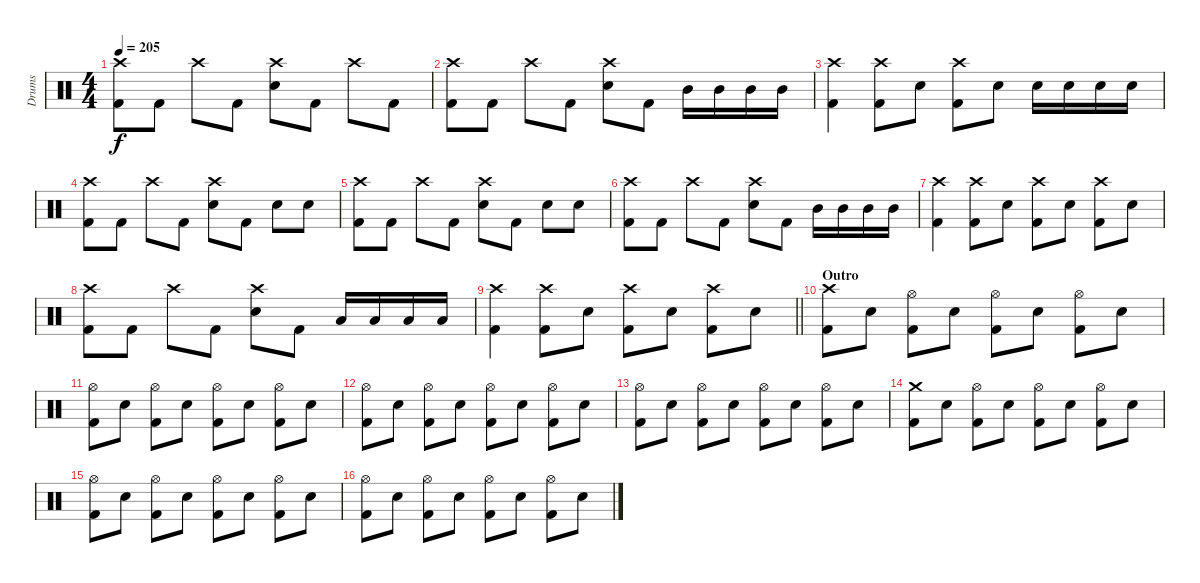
\track ("Drums" "Drums") {instrument percussion}
\staff {score}
\articulation defaults
\ts (4 4)
\tempo 205
\clef neutral
\ks c
("Crash high (hit)" "Kick (hit) 2").8{dy f} "Kick (hit) 2".8 "Crash high (hit)".8 "Kick (hit) 2".8 ("Crash high (hit)" "Electric Snare (hit)").8 "Kick (hit) 2".8 "Crash high (hit)".8 "Kick (hit) 2".8 |
("Crash high (hit)" "Kick (hit) 2").8 "Kick (hit) 2".8 "Crash high (hit)".8 "Kick (hit) 2".8 ("Crash high (hit)" "Electric Snare (hit)").8 "Kick (hit) 2".8 "Mid Tom (hit)".16 "Mid Tom (hit)".16 "Mid Tom (hit)".16 "Mid Tom (hit)".16 |
("Crash high (hit)" "Kick (hit) 2").4 ("Crash high (hit)" "Kick (hit) 2").8 "Electric Snare (hit)".8 ("Crash high (hit)" "Kick (hit) 2").8 "Electric Snare (hit)".8 "Electric Snare (hit)".16 "Electric Snare (hit)".16 "Electric Snare (hit)".16 "Electric Snare (hit)".16 |
("Crash high (hit)" "Kick (hit) 2").8 "Kick (hit) 2".8 "Crash high (hit)".8 "Kick (hit) 2".8 ("Crash high (hit)" "Electric Snare (hit)").8 "Kick (hit) 2".8 "Electric Snare (hit)".8 "Electric Snare (hit)".8 |
("Crash high (hit)" "Kick (hit) 2").8 "Kick (hit) 2".8 "Crash high (hit)".8 "Kick (hit) 2".8 ("Crash high (hit)" "Electric Snare (hit)").8 "Kick (hit) 2".8 "Electric Snare (hit)".8 "Electric Snare (hit)".8 |
("Crash high (hit)" "Kick (hit) 2").8 "Kick (hit) 2".8 "Crash high (hit)".8 "Kick (hit) 2".8 ("Crash high (hit)" "Electric Snare (hit)").8 "Kick (hit) 2".8 "Mid Tom (hit)".16 "Mid Tom (hit)".16 "Mid Tom (hit)".16 "Mid Tom (hit)".16 |
("Crash high (hit)" "Kick (hit) 2").4 ("Crash high (hit)" "Kick (hit) 2").8 "Electric Snare (hit)".8 ("Crash high (hit)" "Kick (hit) 2").8 "Electric Snare (hit)".8 ("Crash high (hit)" "Kick (hit) 2").8 "Electric Snare (hit)".8 |
("Crash high (hit)" "Kick (hit) 2").8 "Kick (hit) 2".8 "Crash high (hit)".8 "Kick (hit) 2".8 ("Crash high (hit)" "Electric Snare (hit)").8 "Kick (hit) 2".8 "Low Tom (hit)".16 "Low Tom (hit)".16 "Low Tom (hit)".16 "Low Tom (hit)".16 |
\barLineRight lightlight
("Crash high (hit)" "Kick (hit) 2").4 ("Crash high (hit)" "Kick (hit) 2").8 "Electric Snare (hit)".8 ("Crash high (hit)" "Kick (hit) 2").8 "Electric Snare (hit)".8 ("Crash high (hit)" "Kick (hit) 2").8 "Electric Snare (hit)".8 |
\section ("" "Outro")
("Crash high (hit)" "Kick (hit) 2").8 "Electric Snare (hit)".8 ("Hi-Hat (open)" "Kick (hit) 2").8 "Electric Snare (hit)".8 ("Hi-Hat (open)" "Kick (hit) 2").8 "Electric Snare (hit)".8 ("Hi-Hat (open)" "Kick (hit) 2").8 "Electric Snare (hit)".8 |
("Hi-Hat (open)" "Kick (hit) 2").8 "Electric Snare (hit)".8 ("Hi-Hat (open)" "Kick (hit) 2").8 "Electric Snare (hit)".8 ("Hi-Hat (open)" "Kick (hit) 2").8 "Electric Snare (hit)".8 ("Hi-Hat (open)" "Kick (hit) 2").8 "Electric Snare (hit)".8 |
("Hi-Hat (open)" "Kick (hit) 2").8 "Electric Snare (hit)".8 ("Hi-Hat (open)" "Kick (hit) 2").8 "Electric Snare (hit)".8 ("Hi-Hat (open)" "Kick (hit) 2").8 "Electric Snare (hit)".8 ("Hi-Hat (open)" "Kick (hit) 2").8 "Electric Snare (hit)".8 |
("Hi-Hat (open)" "Kick (hit) 2").8 "Electric Snare (hit)".8 ("Hi-Hat (open)" "Kick (hit) 2").8 "Electric Snare (hit)".8 ("Hi-Hat (open)" "Kick (hit) 2").8 "Electric Snare (hit)".8 ("Hi-Hat (open)" "Kick (hit) 2").8 "Electric Snare (hit)".8 |
("Crash medium (hit)" "Kick (hit) 2").8 "Electric Snare (hit)".8 ("Hi-Hat (open)" "Kick (hit) 2").8 "Electric Snare (hit)".8 ("Hi-Hat (open)" "Kick (hit) 2").8 "Electric Snare (hit)".8 ("Hi-Hat (open)" "Kick (hit) 2").8 "Electric Snare (hit)".8 |
("Hi-Hat (open)" "Kick (hit) 2").8 "Electric Snare (hit)".8 ("Hi-Hat (open)" "Kick (hit) 2").8 "Electric Snare (hit)".8 ("Hi-Hat (open)" "Kick (hit) 2").8 "Electric Snare (hit)".8 ("Hi-Hat (open)" "Kick (hit) 2").8 "Electric Snare (hit)".8 |
("Hi-Hat (open)" "Kick (hit) 2").8 "Electric Snare (hit)".8 ("Hi-Hat (open)" "Kick (hit) 2").8 "Electric Snare (hit)".8 ("Hi-Hat (open)" "Kick (hit) 2").8 "Electric Snare (hit)".8 ("Hi-Hat (open)" "Kick (hit) 2").8 "Electric Snare (hit)".8
